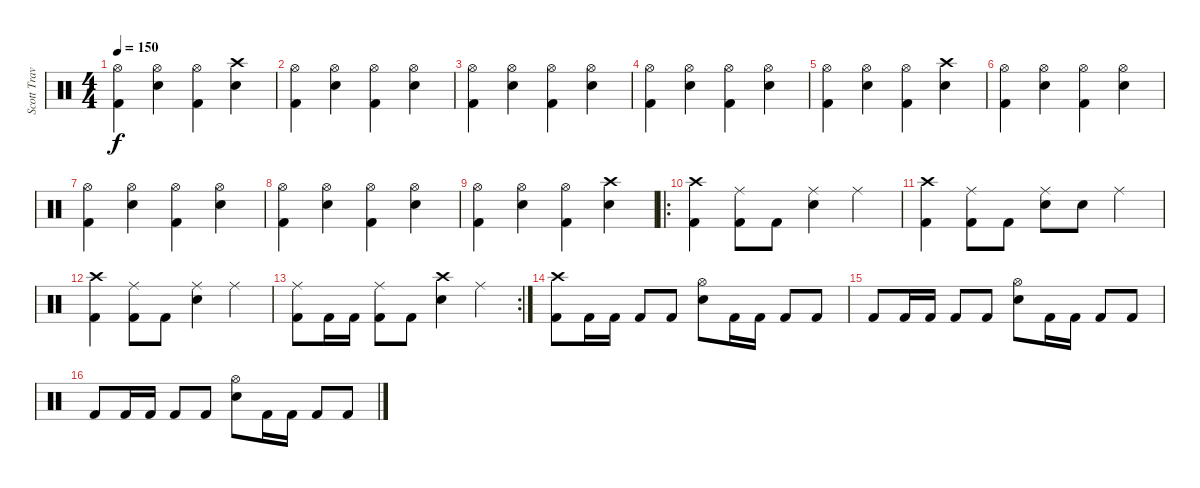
\track ("Scott Travis" "Scott Trav") {instrument percussion}
\staff {score}
\articulation defaults
\ts (4 4)
\tempo 150
\clef neutral
\ks c
("Hi-Hat (open)" "Kick (hit) 2").4{dy f} ("Hi-Hat (open)" "Snare (hit) 2").4 ("Hi-Hat (open)" "Kick (hit) 2").4 ("Crash high (hit)" "Snare (hit) 2").4 |
("Hi-Hat (open)" "Kick (hit) 2").4 ("Hi-Hat (open)" "Snare (hit) 2").4 ("Hi-Hat (open)" "Kick (hit) 2").4 ("Hi-Hat (open)" "Snare (hit) 2").4 |
("Hi-Hat (open)" "Kick (hit) 2").4 ("Hi-Hat (open)" "Snare (hit) 2").4 ("Hi-Hat (open)" "Kick (hit) 2").4 ("Hi-Hat (open)" "Snare (hit) 2").4 |
("Hi-Hat (open)" "Kick (hit) 2").4 ("Hi-Hat (open)" "Snare (hit) 2").4 ("Hi-Hat (open)" "Kick (hit) 2").4 ("Hi-Hat (open)" "Snare (hit) 2").4 |
("Hi-Hat (open)" "Kick (hit) 2").4 ("Hi-Hat (open)" "Snare (hit) 2").4 ("Hi-Hat (open)" "Kick (hit) 2").4 ("Crash high (hit)" "Snare (hit) 2").4 |
("Hi-Hat (open)" "Kick (hit) 2").4 ("Hi-Hat (open)" "Snare (hit) 2").4 ("Hi-Hat (open)" "Kick (hit) 2").4 ("Hi-Hat (open)" "Snare (hit) 2").4 |
("Hi-Hat (open)" "Kick (hit) 2").4 ("Hi-Hat (open)" "Snare (hit) 2").4 ("Hi-Hat (open)" "Kick (hit) 2").4 ("Hi-Hat (open)" "Snare (hit) 2").4 |
("Hi-Hat (open)" "Kick (hit) 2").4 ("Hi-Hat (open)" "Snare (hit) 2").4 ("Hi-Hat (open)" "Kick (hit) 2").4 ("Hi-Hat (open)" "Snare (hit) 2").4 |
("Hi-Hat (open)" "Kick (hit) 2").4 ("Hi-Hat (open)" "Snare (hit) 2").4 ("Hi-Hat (open)" "Kick (hit) 2").4 ("Crash high (hit)" "Snare (hit) 2").4 |
\ro
("Crash high (hit)" "Kick (hit) 2").4 ("Ride (middle)" "Kick (hit) 2").8 "Kick (hit) 2".8 ("Ride (middle)" "Snare (hit) 2").4 "Ride (middle)".4 |
("Crash high (hit)" "Kick (hit) 2").4 ("Ride (middle)" "Kick (hit) 2").8 "Kick (hit) 2".8 ("Ride (middle)" "Snare (hit) 2").8 "Snare (hit) 2".8 "Ride (middle)".4 |
("Crash high (hit)" "Kick (hit) 2").4 ("Ride (middle)" "Kick (hit) 2").8 "Kick (hit) 2".8 ("Ride (middle)" "Snare (hit) 2").4 "Ride (middle)".4 |
\rc 2
("Ride (middle)" "Kick (hit) 2").8 "Kick (hit) 2".16 "Kick (hit) 2".16 ("Ride (middle)" "Kick (hit) 2").8 "Kick (hit) 2".8 ("Crash high (hit)" "Snare (hit) 2").4 "Ride (middle)".4 |
("Crash high (hit)" "Kick (hit) 2").8 "Kick (hit) 2".16 "Kick (hit) 2".16 "Kick (hit) 2".8 "Kick (hit) 2".8 ("Hi-Hat (open)" "Snare (hit) 2").8 "Kick (hit) 2".16 "Kick (hit) 2".16 "Kick (hit) 2".8 "Kick (hit) 2".8 |
"Kick (hit) 2".8 "Kick (hit) 2".16 "Kick (hit) 2".16 "Kick (hit) 2".8 "Kick (hit) 2".8 ("Hi-Hat (open)" "Snare (hit) 2").8 "Kick (hit) 2".16 "Kick (hit) 2".16 "Kick (hit) 2".8 "Kick (hit) 2".8 |
"Kick (hit) 2".8 "Kick (hit) 2".16 "Kick (hit) 2".16 "Kick (hit) 2".8 "Kick (hit) 2".8 ("Hi-Hat (open)" "Snare (hit) 2").8 "Kick (hit) 2".16 "Kick (hit) 2".16 "Kick (hit) 2".8 "Kick (hit) 2".8
